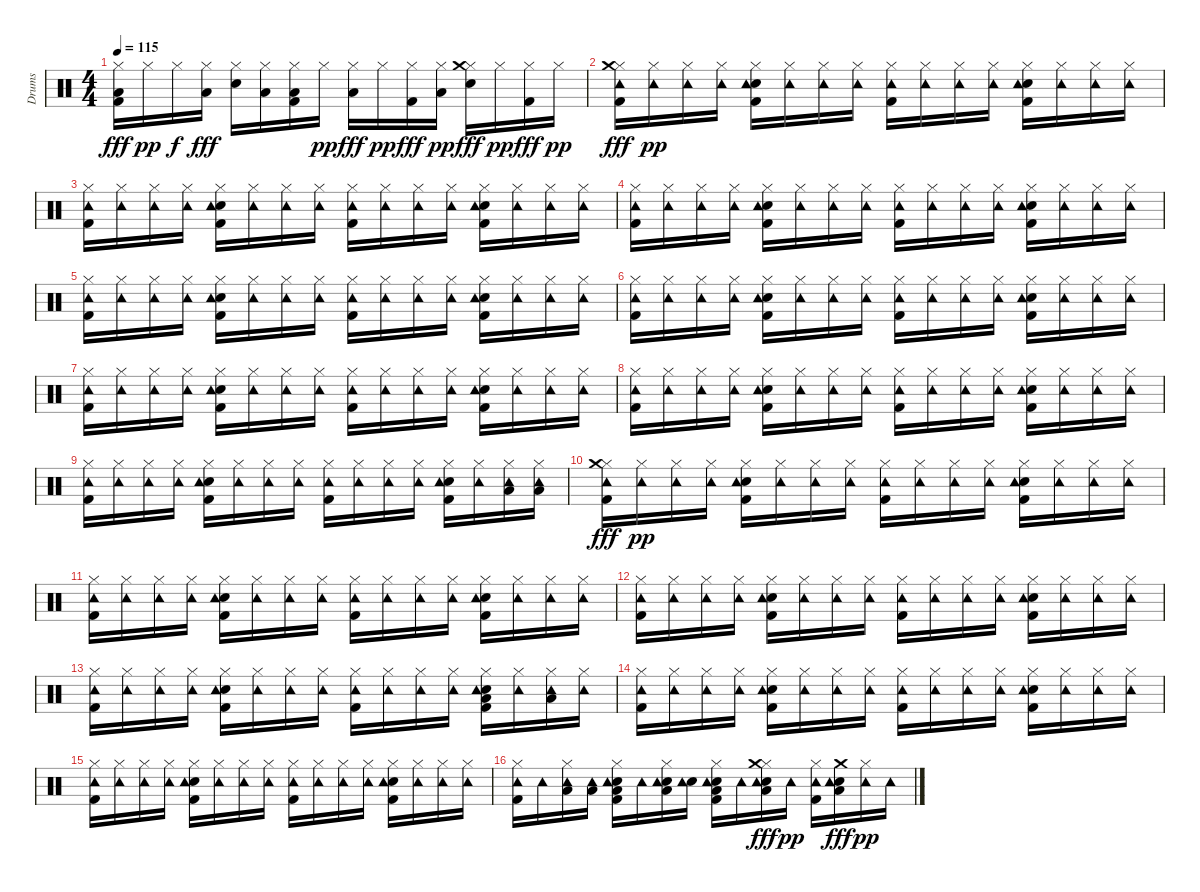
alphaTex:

\track ("Drums" "Drums") {instrument percussion}
\staff {score}
\articulation defaults
\ts (4 4)
\tempo 115
\clef neutral
\ks c
("Kick (hit) 2" "Hi-Hat (closed)" "Low Tom (hit)").16{dy fff} "Hi-Hat (closed)".16{dy pp} "Hi-Hat (closed)".16{dy f} ("Hi-Hat (closed)" "Low Tom (hit)").16{dy fff} ("Snare (hit) 2" "Hi-Hat (closed)").16 ("Hi-Hat (closed)" "Low Tom (hit)").16 ("Kick (hit) 2" "Low Floor Tom (hit)" "Hi-Hat (closed)").16 "Hi-Hat (closed)".16{dy pp} ("Low Floor Tom (hit)" "Hi-Hat (closed)").16{dy fff} "Hi-Hat (closed)".16{dy pp} ("Kick (hit) 2" "Hi-Hat (closed)").16{dy fff} ("Low Floor Tom (hit)" "Hi-Hat (closed)").16{dy pp} ("Snare (hit) 2" "Hi-Hat (closed)" "Crash medium (hit)").16{dy fff} "Hi-Hat (closed)".16{dy pp} ("Kick (hit) 2" "Hi-Hat (closed)").16{dy fff} "Hi-Hat (closed)".16{dy pp} |
("Kick (hit) 2" "Hi-Hat (closed)" "Tambourine (hit)" "Crash medium (hit)").16{dy fff} ("Hi-Hat (closed)" "Tambourine (hit)").16{dy pp} ("Hi-Hat (closed)" "Tambourine (hit)").16 ("Hi-Hat (closed)" "Tambourine (hit)").16 ("Kick (hit) 2" "Snare (hit) 2" "Hi-Hat (closed)" "Tambourine (hit)").16 ("Hi-Hat (closed)" "Tambourine (hit)").16 ("Hi-Hat (closed)" "Tambourine (hit)").16 ("Hi-Hat (closed)" "Tambourine (hit)").16 ("Kick (hit) 2" "Hi-Hat (closed)" "Tambourine (hit)").16 ("Hi-Hat (closed)" "Tambourine (hit)").16 ("Hi-Hat (closed)" "Tambourine (hit)").16 ("Hi-Hat (closed)" "Tambourine (hit)").16 ("Kick (hit) 2" "Snare (hit) 2" "Hi-Hat (closed)" "Tambourine (hit)").16 ("Hi-Hat (closed)" "Tambourine (hit)").16 ("Hi-Hat (closed)" "Tambourine (hit)").16 ("Hi-Hat (closed)" "Tambourine (hit)").16 |
("Kick (hit) 2" "Hi-Hat (closed)" "Tambourine (hit)").16 ("Hi-Hat (closed)" "Tambourine (hit)").16 ("Hi-Hat (closed)" "Tambourine (hit)").16 ("Hi-Hat (closed)" "Tambourine (hit)").16 ("Kick (hit) 2" "Snare (hit) 2" "Hi-Hat (closed)" "Tambourine (hit)").16 ("Hi-Hat (closed)" "Tambourine (hit)").16 ("Hi-Hat (closed)" "Tambourine (hit)").16 ("Hi-Hat (closed)" "Tambourine (hit)").16 ("Kick (hit) 2" "Hi-Hat (closed)" "Tambourine (hit)").16 ("Hi-Hat (closed)" "Tambourine (hit)").16 ("Hi-Hat (closed)" "Tambourine (hit)").16 ("Hi-Hat (closed)" "Tambourine (hit)").16 ("Kick (hit) 2" "Snare (hit) 2" "Hi-Hat (closed)" "Tambourine (hit)").16 ("Hi-Hat (closed)" "Tambourine (hit)").16 ("Hi-Hat (closed)" "Tambourine (hit)").16 ("Hi-Hat (closed)" "Tambourine (hit)").16 |
("Kick (hit) 2" "Hi-Hat (closed)" "Tambourine (hit)").16 ("Hi-Hat (closed)" "Tambourine (hit)").16 ("Hi-Hat (closed)" "Tambourine (hit)").16 ("Hi-Hat (closed)" "Tambourine (hit)").16 ("Kick (hit) 2" "Snare (hit) 2" "Hi-Hat (closed)" "Tambourine (hit)").16 ("Hi-Hat (closed)" "Tambourine (hit)").16 ("Hi-Hat (closed)" "Tambourine (hit)").16 ("Hi-Hat (closed)" "Tambourine (hit)").16 ("Kick (hit) 2" "Hi-Hat (closed)" "Tambourine (hit)").16 ("Hi-Hat (closed)" "Tambourine (hit)").16 ("Hi-Hat (closed)" "Tambourine (hit)").16 ("Hi-Hat (closed)" "Tambourine (hit)").16 ("Kick (hit) 2" "Snare (hit) 2" "Hi-Hat (closed)" "Tambourine (hit)").16 ("Hi-Hat (closed)" "Tambourine (hit)").16 ("Hi-Hat (closed)" "Tambourine (hit)").16 ("Hi-Hat (closed)" "Tambourine (hit)").16 |
("Kick (hit) 2" "Hi-Hat (closed)" "Tambourine (hit)").16 ("Hi-Hat (closed)" "Tambourine (hit)").16 ("Hi-Hat (closed)" "Tambourine (hit)").16 ("Hi-Hat (closed)" "Tambourine (hit)").16 ("Kick (hit) 2" "Snare (hit) 2" "Hi-Hat (closed)" "Tambourine (hit)").16 ("Hi-Hat (closed)" "Tambourine (hit)").16 ("Hi-Hat (closed)" "Tambourine (hit)").16 ("Hi-Hat (closed)" "Tambourine (hit)").16 ("Kick (hit) 2" "Hi-Hat (closed)" "Tambourine (hit)").16 ("Hi-Hat (closed)" "Tambourine (hit)").16 ("Hi-Hat (closed)" "Tambourine (hit)").16 ("Hi-Hat (closed)" "Tambourine (hit)").16 ("Kick (hit) 2" "Snare (hit) 2" "Hi-Hat (closed)" "Tambourine (hit)").16 ("Hi-Hat (closed)" "Tambourine (hit)").16 ("Hi-Hat (closed)" "Tambourine (hit)").16 ("Hi-Hat (closed)" "Tambourine (hit)").16 |
("Kick (hit) 2" "Hi-Hat (closed)" "Tambourine (hit)").16 ("Hi-Hat (closed)" "Tambourine (hit)").16 ("Hi-Hat (closed)" "Tambourine (hit)").16 ("Hi-Hat (closed)" "Tambourine (hit)").16 ("Kick (hit) 2" "Snare (hit) 2" "Hi-Hat (closed)" "Tambourine (hit)").16 ("Hi-Hat (closed)" "Tambourine (hit)").16 ("Hi-Hat (closed)" "Tambourine (hit)").16 ("Hi-Hat (closed)" "Tambourine (hit)").16 ("Kick (hit) 2" "Hi-Hat (closed)" "Tambourine (hit)").16 ("Hi-Hat (closed)" "Tambourine (hit)").16 ("Hi-Hat (closed)" "Tambourine (hit)").16 ("Hi-Hat (closed)" "Tambourine (hit)").16 ("Kick (hit) 2" "Snare (hit) 2" "Hi-Hat (closed)" "Tambourine (hit)").16 ("Hi-Hat (closed)" "Tambourine (hit)").16 ("Hi-Hat (closed)" "Tambourine (hit)").16 ("Hi-Hat (closed)" "Tambourine (hit)").16 |
("Kick (hit) 2" "Hi-Hat (closed)" "Tambourine (hit)").16 ("Hi-Hat (closed)" "Tambourine (hit)").16 ("Hi-Hat (closed)" "Tambourine (hit)").16 ("Hi-Hat (closed)" "Tambourine (hit)").16 ("Kick (hit) 2" "Snare (hit) 2" "Hi-Hat (closed)" "Tambourine (hit)").16 ("Hi-Hat (closed)" "Tambourine (hit)").16 ("Hi-Hat (closed)" "Tambourine (hit)").16 ("Hi-Hat (closed)" "Tambourine (hit)").16 ("Kick (hit) 2" "Hi-Hat (closed)" "Tambourine (hit)").16 ("Hi-Hat (closed)" "Tambourine (hit)").16 ("Hi-Hat (closed)" "Tambourine (hit)").16 ("Hi-Hat (closed)" "Tambourine (hit)").16 ("Kick (hit) 2" "Snare (hit) 2" "Hi-Hat (closed)" "Tambourine (hit)").16 ("Hi-Hat (closed)" "Tambourine (hit)").16 ("Hi-Hat (closed)" "Tambourine (hit)").16 ("Hi-Hat (closed)" "Tambourine (hit)").16 |
("Kick (hit) 2" "Hi-Hat (closed)" "Tambourine (hit)").16 ("Hi-Hat (closed)" "Tambourine (hit)").16 ("Hi-Hat (closed)" "Tambourine (hit)").16 ("Hi-Hat (closed)" "Tambourine (hit)").16 ("Kick (hit) 2" "Snare (hit) 2" "Hi-Hat (closed)" "Tambourine (hit)").16 ("Hi-Hat (closed)" "Tambourine (hit)").16 ("Hi-Hat (closed)" "Tambourine (hit)").16 ("Hi-Hat (closed)" "Tambourine (hit)").16 ("Kick (hit) 2" "Hi-Hat (closed)" "Tambourine (hit)").16 ("Hi-Hat (closed)" "Tambourine (hit)").16 ("Hi-Hat (closed)" "Tambourine (hit)").16 ("Hi-Hat (closed)" "Tambourine (hit)").16 ("Kick (hit) 2" "Snare (hit) 2" "Hi-Hat (closed)" "Tambourine (hit)").16 ("Hi-Hat (closed)" "Tambourine (hit)").16 ("Hi-Hat (closed)" "Tambourine (hit)").16 ("Hi-Hat (closed)" "Tambourine (hit)").16 |
("Kick (hit) 2" "Hi-Hat (closed)" "Tambourine (hit)").16 ("Hi-Hat (closed)" "Tambourine (hit)").16 ("Hi-Hat (closed)" "Tambourine (hit)").16 ("Hi-Hat (closed)" "Tambourine (hit)").16 ("Kick (hit) 2" "Snare (hit) 2" "Hi-Hat (closed)" "Tambourine (hit)").16 ("Hi-Hat (closed)" "Tambourine (hit)").16 ("Hi-Hat (closed)" "Tambourine (hit)").16 ("Hi-Hat (closed)" "Tambourine (hit)").16 ("Kick (hit) 2" "Hi-Hat (closed)" "Tambourine (hit)").16 ("Hi-Hat (closed)" "Tambourine (hit)").16 ("Hi-Hat (closed)" "Tambourine (hit)").16 ("Hi-Hat (closed)" "Tambourine (hit)").16 ("Kick (hit) 2" "Snare (hit) 2" "Hi-Hat (closed)" "Tambourine (hit)").16 ("Hi-Hat (closed)" "Tambourine (hit)").16 ("Hi-Hat (closed)" "Low Tom (hit)" "Tambourine (hit)").16 ("Hi-Hat (closed)" "Low Tom (hit)" "Tambourine (hit)").16 |
("Kick (hit) 2" "Hi-Hat (closed)" "Tambourine (hit)" "Crash medium (hit)").16{dy fff} ("Hi-Hat (closed)" "Tambourine (hit)").16{dy pp} ("Hi-Hat (closed)" "Tambourine (hit)").16 ("Hi-Hat (closed)" "Tambourine (hit)").16 ("Kick (hit) 2" "Snare (hit) 2" "Hi-Hat (closed)" "Tambourine (hit)").16 ("Hi-Hat (closed)" "Tambourine (hit)").16 ("Hi-Hat (closed)" "Tambourine (hit)").16 ("Hi-Hat (closed)" "Tambourine (hit)").16 ("Kick (hit) 2" "Hi-Hat (closed)" "Tambourine (hit)").16 ("Hi-Hat (closed)" "Tambourine (hit)").16 ("Hi-Hat (closed)" "Tambourine (hit)").16 ("Hi-Hat (closed)" "Tambourine (hit)").16 ("Kick (hit) 2" "Snare (hit) 2" "Hi-Hat (closed)" "Tambourine (hit)").16 ("Hi-Hat (closed)" "Tambourine (hit)").16 ("Hi-Hat (closed)" "Tambourine (hit)").16 ("Hi-Hat (closed)" "Tambourine (hit)").16 |
("Kick (hit) 2" "Hi-Hat (closed)" "Tambourine (hit)").16 ("Hi-Hat (closed)" "Tambourine (hit)").16 ("Hi-Hat (closed)" "Tambourine (hit)").16 ("Hi-Hat (closed)" "Tambourine (hit)").16 ("Kick (hit) 2" "Snare (hit) 2" "Hi-Hat (closed)" "Tambourine (hit)").16 ("Hi-Hat (closed)" "Tambourine (hit)").16 ("Hi-Hat (closed)" "Tambourine (hit)").16 ("Hi-Hat (closed)" "Tambourine (hit)").16 ("Kick (hit) 2" "Hi-Hat (closed)" "Tambourine (hit)").16 ("Hi-Hat (closed)" "Tambourine (hit)").16 ("Hi-Hat (closed)" "Tambourine (hit)").16 ("Hi-Hat (closed)" "Tambourine (hit)").16 ("Kick (hit) 2" "Snare (hit) 2" "Hi-Hat (closed)" "Tambourine (hit)").16 ("Hi-Hat (closed)" "Tambourine (hit)").16 ("Hi-Hat (closed)" "Tambourine (hit)").16 ("Hi-Hat (closed)" "Tambourine (hit)").16 |
("Kick (hit) 2" "Hi-Hat (closed)" "Tambourine (hit)").16 ("Hi-Hat (closed)" "Tambourine (hit)").16 ("Hi-Hat (closed)" "Tambourine (hit)").16 ("Hi-Hat (closed)" "Tambourine (hit)").16 ("Kick (hit) 2" "Snare (hit) 2" "Hi-Hat (closed)" "Tambourine (hit)").16 ("Hi-Hat (closed)" "Tambourine (hit)").16 ("Hi-Hat (closed)" "Tambourine (hit)").16 ("Hi-Hat (closed)" "Tambourine (hit)").16 ("Kick (hit) 2" "Hi-Hat (closed)" "Tambourine (hit)").16 ("Hi-Hat (closed)" "Tambourine (hit)").16 ("Hi-Hat (closed)" "Tambourine (hit)").16 ("Hi-Hat (closed)" "Tambourine (hit)").16 ("Kick (hit) 2" "Snare (hit) 2" "Hi-Hat (closed)" "Tambourine (hit)").16 ("Hi-Hat (closed)" "Tambourine (hit)").16 ("Hi-Hat (closed)" "Tambourine (hit)").16 ("Hi-Hat (closed)" "Tambourine (hit)").16 |
("Kick (hit) 2" "Hi-Hat (closed)" "Tambourine (hit)").16 ("Hi-Hat (closed)" "Tambourine (hit)").16 ("Hi-Hat (closed)" "Tambourine (hit)").16 ("Hi-Hat (closed)" "Tambourine (hit)").16 ("Kick (hit) 2" "Snare (hit) 2" "Hi-Hat (closed)" "Tambourine (hit)").16 ("Hi-Hat (closed)" "Tambourine (hit)").16 ("Hi-Hat (closed)" "Tambourine (hit)").16 ("Hi-Hat (closed)" "Tambourine (hit)").16 ("Kick (hit) 2" "Hi-Hat (closed)" "Tambourine (hit)").16 ("Hi-Hat (closed)" "Tambourine (hit)").16 ("Hi-Hat (closed)" "Tambourine (hit)").16 ("Hi-Hat (closed)" "Tambourine (hit)").16 ("Kick (hit) 2" "Snare (hit) 2" "Hi-Hat (closed)" "Low Tom (hit)" "Tambourine (hit)").16 ("Hi-Hat (closed)" "Tambourine (hit)").16 ("Low Floor Tom (hit)" "Hi-Hat (closed)" "Tambourine (hit)").16 ("Hi-Hat (closed)" "Tambourine (hit)").16 |
("Kick (hit) 2" "Hi-Hat (closed)" "Tambourine (hit)").16 ("Hi-Hat (closed)" "Tambourine (hit)").16 ("Hi-Hat (closed)" "Tambourine (hit)").16 ("Hi-Hat (closed)" "Tambourine (hit)").16 ("Kick (hit) 2" "Snare (hit) 2" "Hi-Hat (closed)" "Tambourine (hit)").16 ("Hi-Hat (closed)" "Tambourine (hit)").16 ("Hi-Hat (closed)" "Tambourine (hit)").16 ("Hi-Hat (closed)" "Tambourine (hit)").16 ("Kick (hit) 2" "Hi-Hat (closed)" "Tambourine (hit)").16 ("Hi-Hat (closed)" "Tambourine (hit)").16 ("Hi-Hat (closed)" "Tambourine (hit)").16 ("Hi-Hat (closed)" "Tambourine (hit)").16 ("Kick (hit) 2" "Snare (hit) 2" "Hi-Hat (closed)" "Tambourine (hit)").16 ("Hi-Hat (closed)" "Tambourine (hit)").16 ("Hi-Hat (closed)" "Tambourine (hit)").16 ("Hi-Hat (closed)" "Tambourine (hit)").16 |
("Kick (hit) 2" "Hi-Hat (closed)" "Tambourine (hit)").16 ("Hi-Hat (closed)" "Tambourine (hit)").16 ("Hi-Hat (closed)" "Tambourine (hit)").16 ("Hi-Hat (closed)" "Tambourine (hit)").16 ("Kick (hit) 2" "Snare (hit) 2" "Hi-Hat (closed)" "Tambourine (hit)").16 ("Hi-Hat (closed)" "Tambourine (hit)").16 ("Hi-Hat (closed)" "Tambourine (hit)").16 ("Hi-Hat (closed)" "Tambourine (hit)").16 ("Kick (hit) 2" "Hi-Hat (closed)" "Tambourine (hit)").16 ("Hi-Hat (closed)" "Tambourine (hit)").16 ("Hi-Hat (closed)" "Tambourine (hit)").16 ("Hi-Hat (closed)" "Tambourine (hit)").16 ("Kick (hit) 2" "Snare (hit) 2" "Hi-Hat (closed)" "Tambourine (hit)").16 ("Hi-Hat (closed)" "Tambourine (hit)").16 ("Hi-Hat (closed)" "Tambourine (hit)").16 ("Hi-Hat (closed)" "Tambourine (hit)").16 |
("Kick (hit) 2" "Hi-Hat (closed)" "Tambourine (hit)").16 "Tambourine (hit)".16 ("Hi-Hat (closed)" "Low Tom (hit)" "Tambourine (hit)").16 ("Low Tom (hit)" "Tambourine (hit)").16 ("Kick (hit) 2" "Snare (hit) 2" "Hi-Hat (closed)" "Low Tom (hit)" "Tambourine (hit)").16 "Tambourine (hit)".16 ("Snare (hit) 2" "Hi-Hat (closed)" "Low Tom (hit)" "Tambourine (hit)").16 ("Snare (hit) 2" "Tambourine (hit)").16 ("Kick (hit) 2" "Snare (hit) 2" "Low Floor Tom (hit)" "Hi-Hat (closed)" "Tambourine (hit)").16 "Tambourine (hit)".16 ("Snare (hit) 2" "Hi-Hat (closed)" "Low Tom (hit)" "Tambourine (hit)" "Crash medium (hit)").16{dy fff} "Tambourine (hit)".16{dy pp} ("Kick (hit) 2" "Hi-Hat (closed)" "Tambourine (hit)").16 ("Snare (hit) 2" "Low Tom (hit)" "Tambourine (hit)" "Crash medium (hit)").16{dy fff} ("Hi-Hat (closed)" "Tambourine (hit)").16{dy pp} "Tambourine (hit)".16
